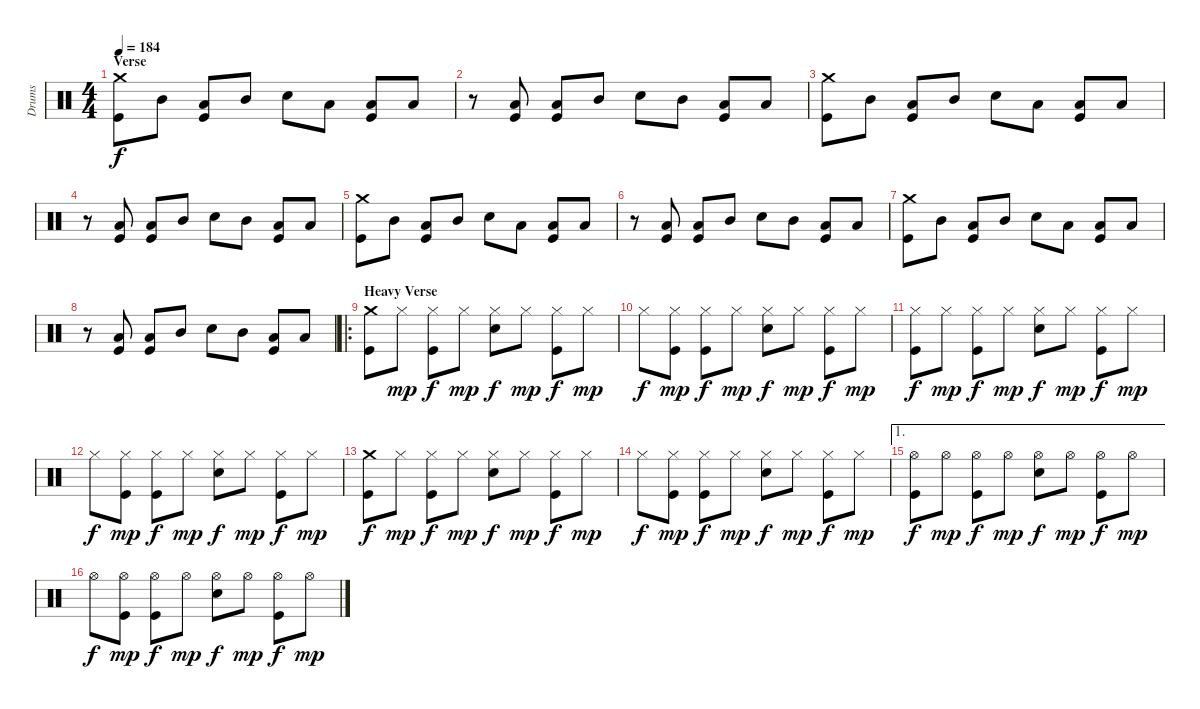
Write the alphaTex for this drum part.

\track ("Drums" "Drums") {instrument percussion}
\staff {score}
\articulation defaults
\ts (4 4)
\section ("" "Verse")
\tempo 184
\clef neutral
\ks c
("Crash medium (hit)" "Kick (hit)").8{dy f} "Mid Tom (hit)".8 ("Low Tom (hit)" "Kick (hit)").8 "Mid Tom (hit)".8 "Electric Snare (hit)".8 "Low Tom (hit)".8 ("Low Tom (hit)" "Kick (hit)").8 "Low Tom (hit)".8 |
r.8 ("Low Tom (hit)" "Kick (hit)").8 ("Low Tom (hit)" "Kick (hit)").8 "Mid Tom (hit)".8 "Electric Snare (hit)".8 "Mid Tom (hit)".8 ("Low Tom (hit)" "Kick (hit)").8 "Low Tom (hit)".8 |
("Crash medium (hit)" "Kick (hit)").8 "Mid Tom (hit)".8 ("Low Tom (hit)" "Kick (hit)").8 "Mid Tom (hit)".8 "Electric Snare (hit)".8 "Low Tom (hit)".8 ("Low Tom (hit)" "Kick (hit)").8 "Low Tom (hit)".8 |
r.8 ("Low Tom (hit)" "Kick (hit)").8 ("Low Tom (hit)" "Kick (hit)").8 "Mid Tom (hit)".8 "Electric Snare (hit)".8 "Mid Tom (hit)".8 ("Low Tom (hit)" "Kick (hit)").8 "Low Tom (hit)".8 |
("Crash medium (hit)" "Kick (hit)").8 "Mid Tom (hit)".8 ("Low Tom (hit)" "Kick (hit)").8 "Mid Tom (hit)".8 "Electric Snare (hit)".8 "Low Tom (hit)".8 ("Low Tom (hit)" "Kick (hit)").8 "Low Tom (hit)".8 |
r.8 ("Low Tom (hit)" "Kick (hit)").8 ("Low Tom (hit)" "Kick (hit)").8 "Mid Tom (hit)".8 "Electric Snare (hit)".8 "Mid Tom (hit)".8 ("Low Tom (hit)" "Kick (hit)").8 "Low Tom (hit)".8 |
("Crash medium (hit)" "Kick (hit)").8 "Mid Tom (hit)".8 ("Low Tom (hit)" "Kick (hit)").8 "Mid Tom (hit)".8 "Electric Snare (hit)".8 "Low Tom (hit)".8 ("Low Tom (hit)" "Kick (hit)").8 "Low Tom (hit)".8 |
r.8 ("Low Tom (hit)" "Kick (hit)").8 ("Low Tom (hit)" "Kick (hit)").8 "Mid Tom (hit)".8 "Electric Snare (hit)".8 "Mid Tom (hit)".8 ("Low Tom (hit)" "Kick (hit)").8 "Low Tom (hit)".8 |
\ro
\section ("" "Heavy Verse")
("Crash medium (hit)" "Kick (hit)").8 "Hi-Hat (closed)".8{dy mp} ("Hi-Hat (closed)" "Kick (hit)").8{dy f} "Hi-Hat (closed)".8{dy mp} ("Hi-Hat (closed)" "Electric Snare (hit)").8{dy f} "Hi-Hat (closed)".8{dy mp} ("Hi-Hat (closed)" "Kick (hit)").8{dy f} "Hi-Hat (closed)".8{dy mp} |
"Hi-Hat (closed)".8{dy f} ("Hi-Hat (closed)" "Kick (hit)").8{dy mp} ("Hi-Hat (closed)" "Kick (hit)").8{dy f} "Hi-Hat (closed)".8{dy mp} ("Hi-Hat (closed)" "Electric Snare (hit)").8{dy f} "Hi-Hat (closed)".8{dy mp} ("Hi-Hat (closed)" "Kick (hit)").8{dy f} "Hi-Hat (closed)".8{dy mp} |
("Hi-Hat (closed)" "Kick (hit)").8{dy f} "Hi-Hat (closed)".8{dy mp} ("Hi-Hat (closed)" "Kick (hit)").8{dy f} "Hi-Hat (closed)".8{dy mp} ("Hi-Hat (closed)" "Electric Snare (hit)").8{dy f} "Hi-Hat (closed)".8{dy mp} ("Hi-Hat (closed)" "Kick (hit)").8{dy f} "Hi-Hat (closed)".8{dy mp} |
"Hi-Hat (closed)".8{dy f} ("Hi-Hat (closed)" "Kick (hit)").8{dy mp} ("Hi-Hat (closed)" "Kick (hit)").8{dy f} "Hi-Hat (closed)".8{dy mp} ("Hi-Hat (closed)" "Electric Snare (hit)").8{dy f} "Hi-Hat (closed)".8{dy mp} ("Hi-Hat (closed)" "Kick (hit)").8{dy f} "Hi-Hat (closed)".8{dy mp} |
("Crash medium (hit)" "Kick (hit)").8{dy f} "Hi-Hat (closed)".8{dy mp} ("Hi-Hat (closed)" "Kick (hit)").8{dy f} "Hi-Hat (closed)".8{dy mp} ("Hi-Hat (closed)" "Electric Snare (hit)").8{dy f} "Hi-Hat (closed)".8{dy mp} ("Hi-Hat (closed)" "Kick (hit)").8{dy f} "Hi-Hat (closed)".8{dy mp} |
"Hi-Hat (closed)".8{dy f} ("Hi-Hat (closed)" "Kick (hit)").8{dy mp} ("Hi-Hat (closed)" "Kick (hit)").8{dy f} "Hi-Hat (closed)".8{dy mp} ("Hi-Hat (closed)" "Electric Snare (hit)").8{dy f} "Hi-Hat (closed)".8{dy mp} ("Hi-Hat (closed)" "Kick (hit)").8{dy f} "Hi-Hat (closed)".8{dy mp} |
\ae 1
("Hi-Hat (open)" "Kick (hit)").8{dy f} "Hi-Hat (open)".8{dy mp} ("Hi-Hat (open)" "Kick (hit)").8{dy f} "Hi-Hat (open)".8{dy mp} ("Hi-Hat (open)" "Electric Snare (hit)").8{dy f} "Hi-Hat (open)".8{dy mp} ("Hi-Hat (open)" "Kick (hit)").8{dy f} "Hi-Hat (open)".8{dy mp} |
"Hi-Hat (open)".8{dy f} ("Hi-Hat (open)" "Kick (hit)").8{dy mp} ("Hi-Hat (open)" "Kick (hit)").8{dy f} "Hi-Hat (open)".8{dy mp} ("Hi-Hat (open)" "Electric Snare (hit)").8{dy f} "Hi-Hat (open)".8{dy mp} ("Hi-Hat (open)" "Kick (hit)").8{dy f} "Hi-Hat (open)".8{dy mp}
